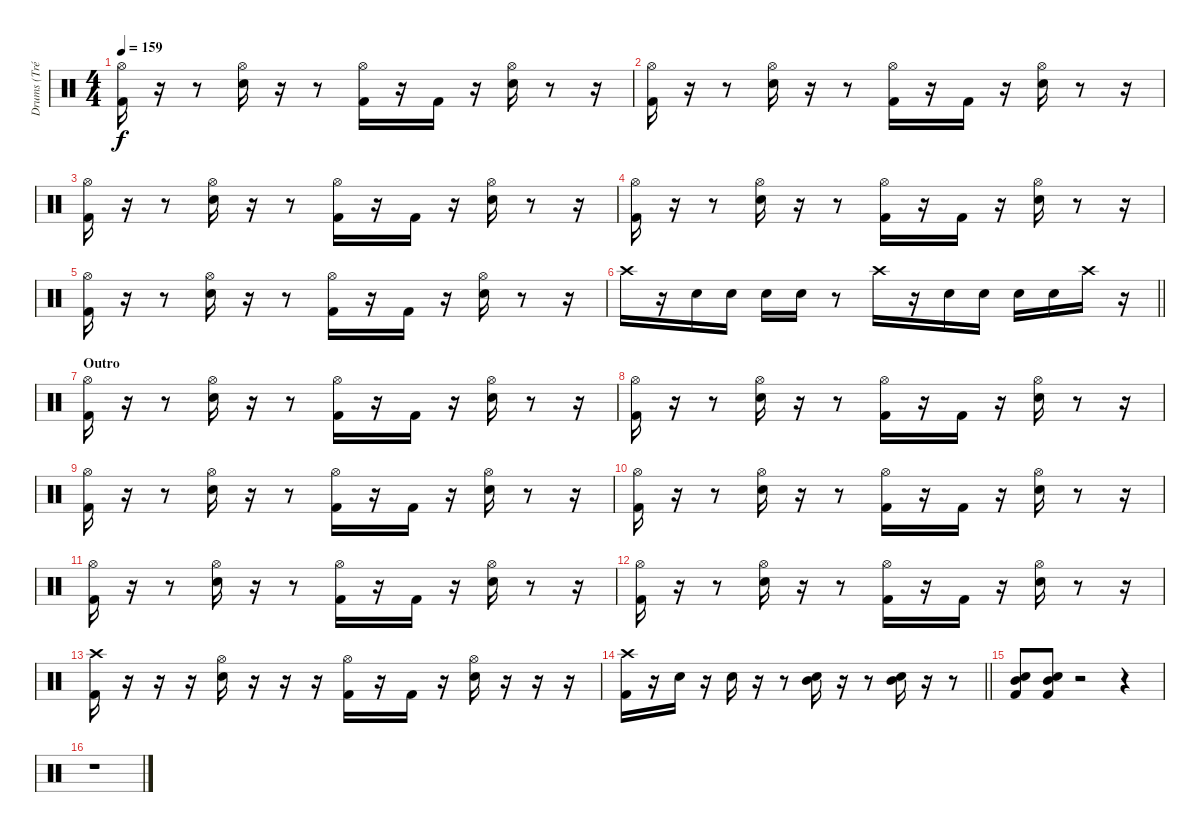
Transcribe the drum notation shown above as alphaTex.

\track ("Drums (Tré Cool)" "Drums (Tré") {instrument percussion}
\staff {score}
\articulation defaults
\ts (4 4)
\tempo 159
\clef neutral
\ks c
("Hi-Hat (open)" "Kick (hit) 2").16{dy f} r.16 r.8 ("Hi-Hat (open)" "Electric Snare (hit)").16 r.16 r.8 ("Hi-Hat (open)" "Kick (hit) 2").16 r.16 "Kick (hit) 2".16 r.16 ("Hi-Hat (open)" "Electric Snare (hit)").16 r.8 r.16 |
("Hi-Hat (open)" "Kick (hit) 2").16 r.16 r.8 ("Hi-Hat (open)" "Electric Snare (hit)").16 r.16 r.8 ("Hi-Hat (open)" "Kick (hit) 2").16 r.16 "Kick (hit) 2".16 r.16 ("Hi-Hat (open)" "Electric Snare (hit)").16 r.8 r.16 |
("Hi-Hat (open)" "Kick (hit) 2").16 r.16 r.8 ("Hi-Hat (open)" "Electric Snare (hit)").16 r.16 r.8 ("Hi-Hat (open)" "Kick (hit) 2").16 r.16 "Kick (hit) 2".16 r.16 ("Hi-Hat (open)" "Electric Snare (hit)").16 r.8 r.16 |
("Hi-Hat (open)" "Kick (hit) 2").16 r.16 r.8 ("Hi-Hat (open)" "Electric Snare (hit)").16 r.16 r.8 ("Hi-Hat (open)" "Kick (hit) 2").16 r.16 "Kick (hit) 2".16 r.16 ("Hi-Hat (open)" "Electric Snare (hit)").16 r.8 r.16 |
("Hi-Hat (open)" "Kick (hit) 2").16 r.16 r.8 ("Hi-Hat (open)" "Electric Snare (hit)").16 r.16 r.8 ("Hi-Hat (open)" "Kick (hit) 2").16 r.16 "Kick (hit) 2".16 r.16 ("Hi-Hat (open)" "Electric Snare (hit)").16 r.8 r.16 |
\barLineRight lightlight "Crash high (hit)".16
r.16 "Electric Snare (hit)".16 "Electric Snare (hit)".16 "Electric Snare (hit)".16 "Electric Snare (hit)".16 r.8 "Crash high (hit)".16 r.16 "Electric Snare (hit)".16 "Electric Snare (hit)".16 "Electric Snare (hit)".16 "Electric Snare (hit)".16 "Crash high (hit)".16 r.16 |
\section ("" "Outro")
("Hi-Hat (open)" "Kick (hit) 2").16 r.16 r.8 ("Hi-Hat (open)" "Electric Snare (hit)").16 r.16 r.8 ("Hi-Hat (open)" "Kick (hit) 2").16 r.16 "Kick (hit) 2".16 r.16 ("Hi-Hat (open)" "Electric Snare (hit)").16 r.8 r.16 |
("Hi-Hat (open)" "Kick (hit) 2").16 r.16 r.8 ("Hi-Hat (open)" "Electric Snare (hit)").16 r.16 r.8 ("Hi-Hat (open)" "Kick (hit) 2").16 r.16 "Kick (hit) 2".16 r.16 ("Hi-Hat (open)" "Electric Snare (hit)").16 r.8 r.16 |
("Hi-Hat (open)" "Kick (hit) 2").16 r.16 r.8 ("Hi-Hat (open)" "Electric Snare (hit)").16 r.16 r.8 ("Hi-Hat (open)" "Kick (hit) 2").16 r.16 "Kick (hit) 2".16 r.16 ("Hi-Hat (open)" "Electric Snare (hit)").16 r.8 r.16 |
("Hi-Hat (open)" "Kick (hit) 2").16 r.16 r.8 ("Hi-Hat (open)" "Electric Snare (hit)").16 r.16 r.8 ("Hi-Hat (open)" "Kick (hit) 2").16 r.16 "Kick (hit) 2".16 r.16 ("Hi-Hat (open)" "Electric Snare (hit)").16 r.8 r.16 |
("Hi-Hat (open)" "Kick (hit) 2").16 r.16 r.8 ("Hi-Hat (open)" "Electric Snare (hit)").16 r.16 r.8 ("Hi-Hat (open)" "Kick (hit) 2").16 r.16 "Kick (hit) 2".16 r.16 ("Hi-Hat (open)" "Electric Snare (hit)").16 r.8 r.16 |
("Hi-Hat (open)" "Kick (hit) 2").16 r.16 r.8 ("Hi-Hat (open)" "Electric Snare (hit)").16 r.16 r.8 ("Hi-Hat (open)" "Kick (hit) 2").16 r.16 "Kick (hit) 2".16 r.16 ("Hi-Hat (open)" "Electric Snare (hit)").16 r.8 r.16 |
("Crash high (hit)" "Kick (hit) 2").16 r.16 r.16 r.16 ("Hi-Hat (open)" "Electric Snare (hit)").16 r.16 r.16 r.16 ("Hi-Hat (open)" "Kick (hit) 2").16 r.16 "Kick (hit) 2".16 r.16 ("Hi-Hat (open)" "Electric Snare (hit)").16 r.16 r.16 r.16 |
\barLineRight lightlight
("Crash high (hit)" "Kick (hit) 2").16 r.16 "Electric Snare (hit)".16 r.16 "Electric Snare (hit)".16 r.16 r.8 ("Mid Tom (hit)" "Electric Snare (hit)").16 r.16 r.8 ("Mid Tom (hit)" "Electric Snare (hit)").16 r.16 r.8 |
("Mid Tom (hit)" "Electric Snare (hit)" "Kick (hit) 2").8 ("Mid Tom (hit)" "Electric Snare (hit)" "Kick (hit) 2").8 r.2 r.4 |
r.1
